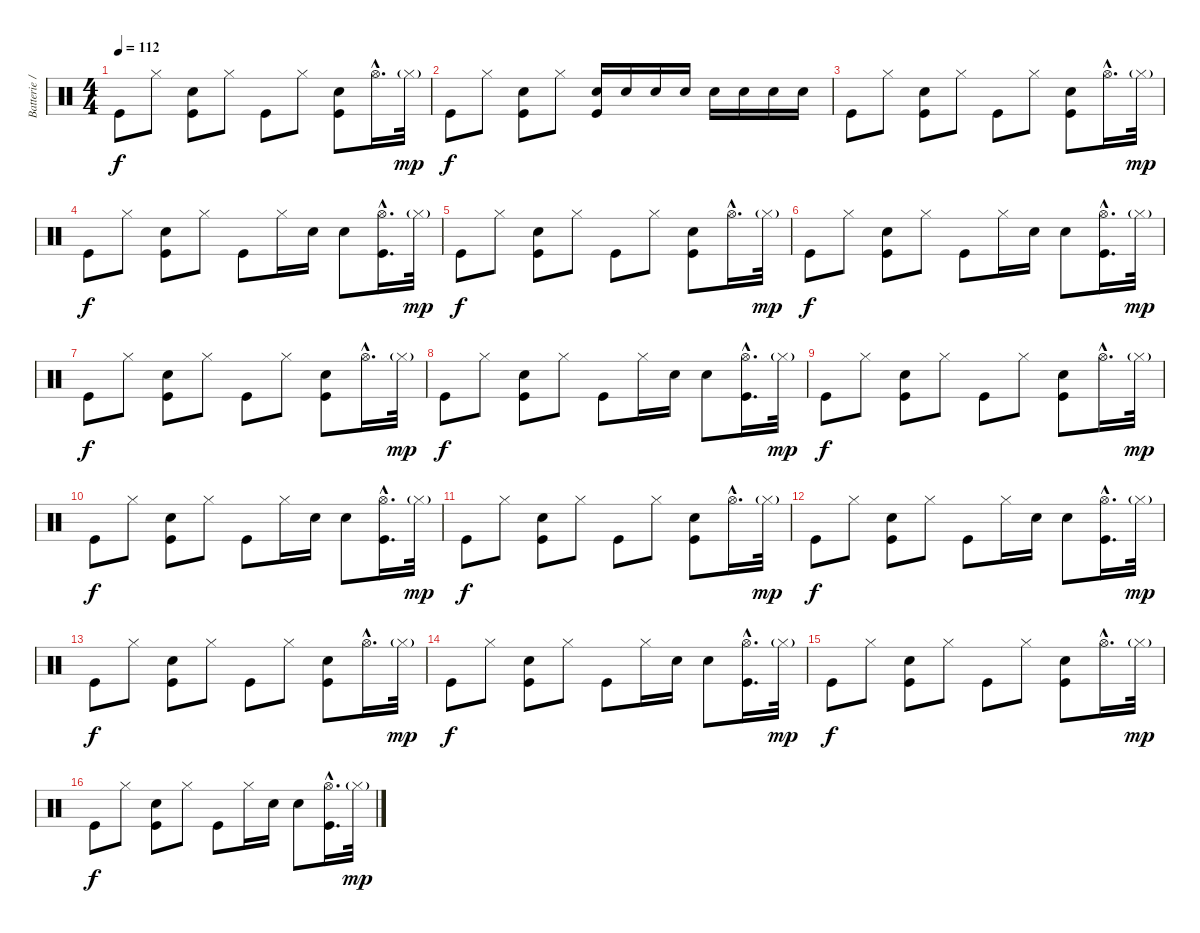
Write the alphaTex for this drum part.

\track ("Batterie // Jerome Dillon" "Batterie /") {instrument percussion}
\staff {score}
\articulation defaults
\ts (4 4)
\tempo 112
\clef neutral
\ks c "Kick (hit)".8{dy f} "Hi-Hat (closed)".8
("Snare (hit) 2" "Kick (hit)").8 "Hi-Hat (closed)".8 "Kick (hit)".8 "Hi-Hat (closed)".8 ("Snare (hit) 2" "Kick (hit)").8 "Hi-Hat (open)"{hac}.16{d} "Hi-Hat (closed)"{g}.32{dy mp} |
"Kick (hit)".8{dy f} "Hi-Hat (closed)".8 ("Snare (hit) 2" "Kick (hit)").8 "Hi-Hat (closed)".8 ("Snare (hit) 2" "Kick (hit)").16 "Snare (hit) 2".16 "Snare (hit) 2".16 "Snare (hit) 2".16 "Snare (hit) 2".16 "Snare (hit) 2".16 "Snare (hit) 2".16 "Snare (hit) 2".16 |
"Kick (hit)".8 "Hi-Hat (closed)".8 ("Snare (hit) 2" "Kick (hit)").8 "Hi-Hat (closed)".8 "Kick (hit)".8 "Hi-Hat (closed)".8 ("Snare (hit) 2" "Kick (hit)").8 "Hi-Hat (open)"{hac}.16{d} "Hi-Hat (closed)"{g}.32{dy mp} |
"Kick (hit)".8{dy f} "Hi-Hat (closed)".8 ("Snare (hit) 2" "Kick (hit)").8 "Hi-Hat (closed)".8 "Kick (hit)".8 "Hi-Hat (closed)".16 "Snare (hit) 2".16 "Snare (hit) 2".8 ("Hi-Hat (open)"{hac} "Kick (hit)"{hac}).16{d} "Hi-Hat (closed)"{g}.32{dy mp} |
"Kick (hit)".8{dy f} "Hi-Hat (closed)".8 ("Snare (hit) 2" "Kick (hit)").8 "Hi-Hat (closed)".8 "Kick (hit)".8 "Hi-Hat (closed)".8 ("Snare (hit) 2" "Kick (hit)").8 "Hi-Hat (open)"{hac}.16{d} "Hi-Hat (closed)"{g}.32{dy mp} |
"Kick (hit)".8{dy f} "Hi-Hat (closed)".8 ("Snare (hit) 2" "Kick (hit)").8 "Hi-Hat (closed)".8 "Kick (hit)".8 "Hi-Hat (closed)".16 "Snare (hit) 2".16 "Snare (hit) 2".8 ("Hi-Hat (open)"{hac} "Kick (hit)"{hac}).16{d} "Hi-Hat (closed)"{g}.32{dy mp} |
"Kick (hit)".8{dy f} "Hi-Hat (closed)".8 ("Snare (hit) 2" "Kick (hit)").8 "Hi-Hat (closed)".8 "Kick (hit)".8 "Hi-Hat (closed)".8 ("Snare (hit) 2" "Kick (hit)").8 "Hi-Hat (open)"{hac}.16{d} "Hi-Hat (closed)"{g}.32{dy mp} |
"Kick (hit)".8{dy f} "Hi-Hat (closed)".8 ("Snare (hit) 2" "Kick (hit)").8 "Hi-Hat (closed)".8 "Kick (hit)".8 "Hi-Hat (closed)".16 "Snare (hit) 2".16 "Snare (hit) 2".8 ("Hi-Hat (open)"{hac} "Kick (hit)"{hac}).16{d} "Hi-Hat (closed)"{g}.32{dy mp} |
"Kick (hit)".8{dy f} "Hi-Hat (closed)".8 ("Snare (hit) 2" "Kick (hit)").8 "Hi-Hat (closed)".8 "Kick (hit)".8 "Hi-Hat (closed)".8 ("Snare (hit) 2" "Kick (hit)").8 "Hi-Hat (open)"{hac}.16{d} "Hi-Hat (closed)"{g}.32{dy mp} |
"Kick (hit)".8{dy f} "Hi-Hat (closed)".8 ("Snare (hit) 2" "Kick (hit)").8 "Hi-Hat (closed)".8 "Kick (hit)".8 "Hi-Hat (closed)".16 "Snare (hit) 2".16 "Snare (hit) 2".8 ("Hi-Hat (open)"{hac} "Kick (hit)"{hac}).16{d} "Hi-Hat (closed)"{g}.32{dy mp} |
"Kick (hit)".8{dy f} "Hi-Hat (closed)".8 ("Snare (hit) 2" "Kick (hit)").8 "Hi-Hat (closed)".8 "Kick (hit)".8 "Hi-Hat (closed)".8 ("Snare (hit) 2" "Kick (hit)").8 "Hi-Hat (open)"{hac}.16{d} "Hi-Hat (closed)"{g}.32{dy mp} |
"Kick (hit)".8{dy f} "Hi-Hat (closed)".8 ("Snare (hit) 2" "Kick (hit)").8 "Hi-Hat (closed)".8 "Kick (hit)".8 "Hi-Hat (closed)".16 "Snare (hit) 2".16 "Snare (hit) 2".8 ("Hi-Hat (open)"{hac} "Kick (hit)"{hac}).16{d} "Hi-Hat (closed)"{g}.32{dy mp} |
"Kick (hit)".8{dy f} "Hi-Hat (closed)".8 ("Snare (hit) 2" "Kick (hit)").8 "Hi-Hat (closed)".8 "Kick (hit)".8 "Hi-Hat (closed)".8 ("Snare (hit) 2" "Kick (hit)").8 "Hi-Hat (open)"{hac}.16{d} "Hi-Hat (closed)"{g}.32{dy mp} |
"Kick (hit)".8{dy f} "Hi-Hat (closed)".8 ("Snare (hit) 2" "Kick (hit)").8 "Hi-Hat (closed)".8 "Kick (hit)".8 "Hi-Hat (closed)".16 "Snare (hit) 2".16 "Snare (hit) 2".8 ("Hi-Hat (open)"{hac} "Kick (hit)"{hac}).16{d} "Hi-Hat (closed)"{g}.32{dy mp} |
"Kick (hit)".8{dy f} "Hi-Hat (closed)".8 ("Snare (hit) 2" "Kick (hit)").8 "Hi-Hat (closed)".8 "Kick (hit)".8 "Hi-Hat (closed)".8 ("Snare (hit) 2" "Kick (hit)").8 "Hi-Hat (open)"{hac}.16{d} "Hi-Hat (closed)"{g}.32{dy mp} |
"Kick (hit)".8{dy f} "Hi-Hat (closed)".8 ("Snare (hit) 2" "Kick (hit)").8 "Hi-Hat (closed)".8 "Kick (hit)".8 "Hi-Hat (closed)".16 "Snare (hit) 2".16 "Snare (hit) 2".8 ("Hi-Hat (open)"{hac} "Kick (hit)"{hac}).16{d} "Hi-Hat (closed)"{g}.32{dy mp}
